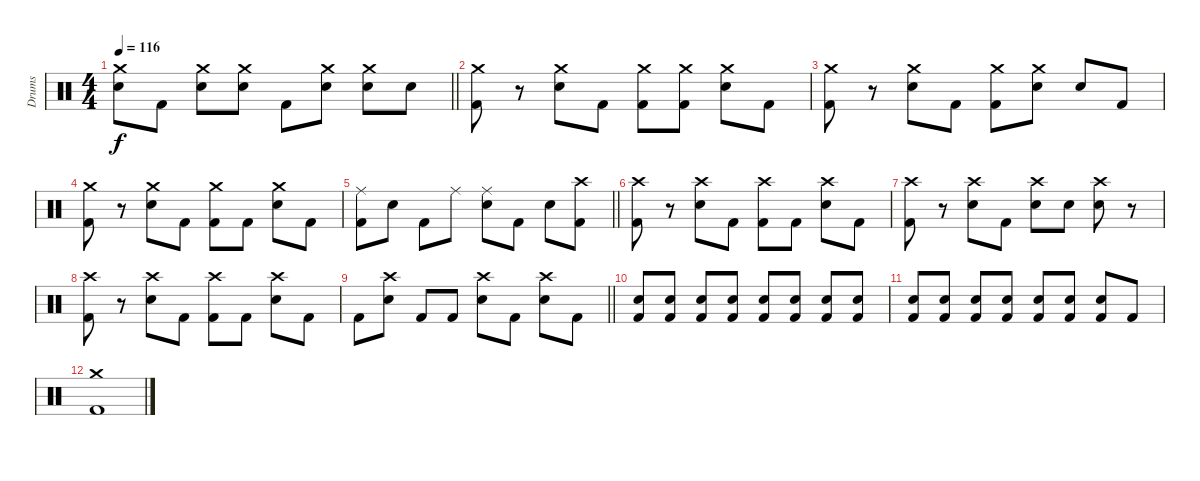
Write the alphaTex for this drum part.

\track ("Drums" "Drums") {instrument percussion}
\staff {score}
\articulation defaults
\ts (4 4)
\tempo 116
\clef neutral
\barLineRight lightlight
\ks c
("Crash medium (hit)" "Electric Snare (hit)").8{dy f} "Kick (hit) 2".8 ("Crash medium (hit)" "Electric Snare (hit)").8 ("Crash medium (hit)" "Electric Snare (hit)").8 "Kick (hit) 2".8 ("Crash medium (hit)" "Electric Snare (hit)").8 ("Crash medium (hit)" "Electric Snare (hit)").8 "Electric Snare (hit)".8 |
("Crash medium (hit)" "Kick (hit) 2").8 r.8 ("Crash medium (hit)" "Electric Snare (hit)").8 "Kick (hit) 2".8 ("Crash medium (hit)" "Kick (hit) 2").8 ("Crash medium (hit)" "Kick (hit) 2").8 ("Crash medium (hit)" "Electric Snare (hit)").8 "Kick (hit) 2".8 |
("Crash medium (hit)" "Kick (hit) 2").8 r.8 ("Crash medium (hit)" "Electric Snare (hit)").8 "Kick (hit) 2".8 ("Crash medium (hit)" "Kick (hit) 2").8 ("Crash medium (hit)" "Electric Snare (hit)").8 "Electric Snare (hit)".8 "Kick (hit) 2".8 |
("Crash medium (hit)" "Kick (hit) 2").8 r.8 ("Crash medium (hit)" "Electric Snare (hit)").8 "Kick (hit) 2".8 ("Crash medium (hit)" "Kick (hit) 2").8 "Kick (hit) 2".8 ("Crash medium (hit)" "Electric Snare (hit)").8 "Kick (hit) 2".8 |
\barLineRight lightlight
("Ride (middle)" "Kick (hit) 2").8 "Electric Snare (hit)".8 "Kick (hit) 2".8 "Ride (middle)".8 ("Ride (middle)" "Electric Snare (hit)").8 "Kick (hit) 2".8 "Electric Snare (hit)".8 ("Crash high (hit)" "Kick (hit) 2").8 |
("Crash high (hit)" "Kick (hit) 2").8 r.8 ("Crash high (hit)" "Electric Snare (hit)").8 "Kick (hit) 2".8 ("Crash high (hit)" "Kick (hit) 2").8 "Kick (hit) 2".8 ("Crash high (hit)" "Electric Snare (hit)").8 "Kick (hit) 2".8 |
("Crash high (hit)" "Kick (hit) 2").8 r.8 ("Crash high (hit)" "Electric Snare (hit)").8 "Kick (hit) 2".8 ("Crash high (hit)" "Electric Snare (hit)").8 "Electric Snare (hit)".8 ("Crash high (hit)" "Electric Snare (hit)").8 r.8 |
("Crash high (hit)" "Kick (hit) 2").8 r.8 ("Crash high (hit)" "Electric Snare (hit)").8 "Kick (hit) 2".8 ("Crash high (hit)" "Kick (hit) 2").8 "Kick (hit) 2".8 ("Crash high (hit)" "Electric Snare (hit)").8 "Kick (hit) 2".8 |
\barLineRight lightlight "Kick (hit) 2".8
("Crash high (hit)" "Electric Snare (hit)").8 "Kick (hit) 2".8 "Kick (hit) 2".8 ("Crash high (hit)" "Electric Snare (hit)").8 "Kick (hit) 2".8 ("Crash high (hit)" "Electric Snare (hit)").8 "Kick (hit) 2".8{volume 4} |
("Electric Snare (hit)" "Kick (hit) 2").8{volume 8} ("Electric Snare (hit)" "Kick (hit) 2").8 ("Electric Snare (hit)" "Kick (hit) 2").8 ("Electric Snare (hit)" "Kick (hit) 2").8 ("Electric Snare (hit)" "Kick (hit) 2").8 ("Electric Snare (hit)" "Kick (hit) 2").8 ("Electric Snare (hit)" "Kick (hit) 2").8 ("Electric Snare (hit)" "Kick (hit) 2").8 |
("Electric Snare (hit)" "Kick (hit) 2").8 ("Electric Snare (hit)" "Kick (hit) 2").8 ("Electric Snare (hit)" "Kick (hit) 2").8 ("Electric Snare (hit)" "Kick (hit) 2").8 ("Electric Snare (hit)" "Kick (hit) 2").8 ("Electric Snare (hit)" "Kick (hit) 2").8 ("Electric Snare (hit)" "Kick (hit) 2").8 "Kick (hit) 2".8 |
("Crash medium (hit)" "Kick (hit) 2").1
